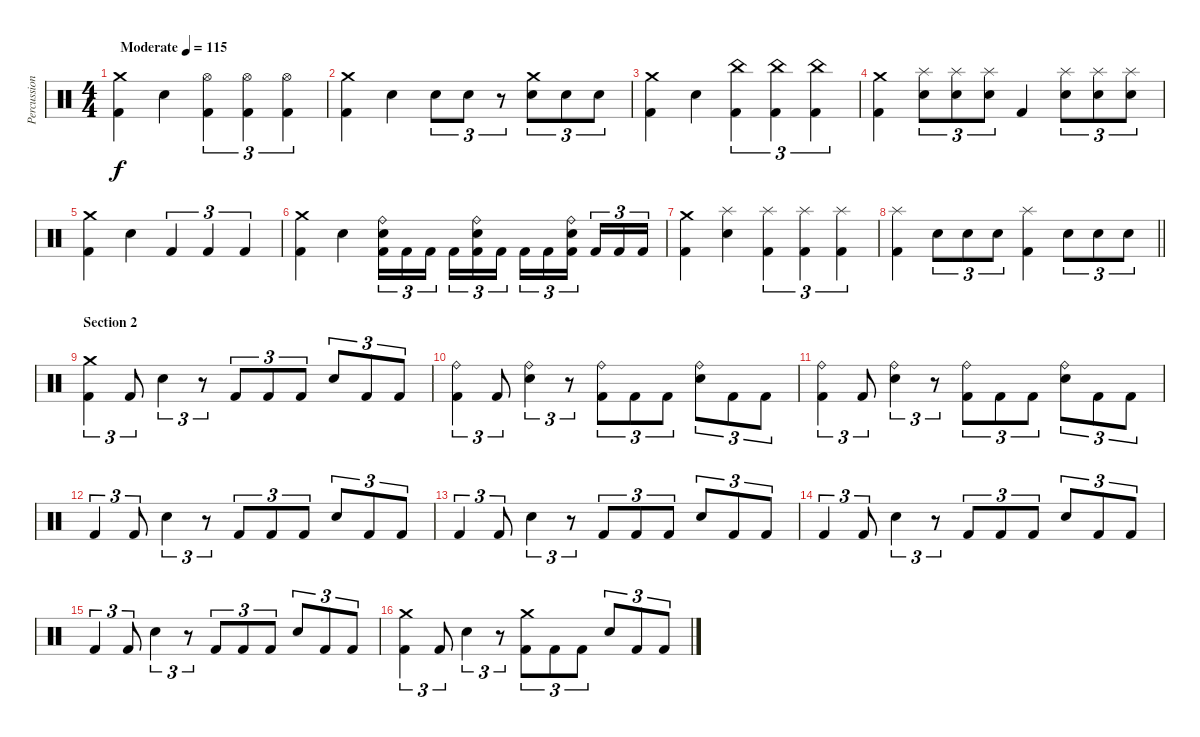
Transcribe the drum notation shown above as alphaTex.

\track ("Percussion" "Percussion") {instrument percussion}
\staff {score}
\articulation defaults
\ts (4 4)
\tempo (115 "Moderate")
\clef neutral
\ks c
("Crash medium (hit)" "Kick (hit) 2").4{dy f} "Snare (hit) 2".4 ("Hi-Hat (open)" "Kick (hit) 2").4{tu (3 2)} ("Hi-Hat (open)" "Kick (hit) 2").4{tu (3 2)} ("Hi-Hat (open)" "Kick (hit) 2").4{tu (3 2)} |
("Crash medium (hit)" "Kick (hit) 2").4 "Snare (hit) 2".4 "Snare (hit) 2".8{tu (3 2)} "Snare (hit) 2".8{tu (3 2)} r.8{tu (3 2)} ("Crash medium (hit)" "Snare (hit) 2").8{tu (3 2)} "Snare (hit) 2".8{tu (3 2)} "Snare (hit) 2".8{tu (3 2)} |
("Crash medium (hit)" "Kick (hit) 2").4 "Snare (hit) 2".4 ("China (hit)" "Kick (hit) 2").4{tu (3 2)} ("China (hit)" "Kick (hit) 2").4{tu (3 2)} ("China (hit)" "Kick (hit) 2").4{tu (3 2)} |
("Crash medium (hit)" "Kick (hit) 2").4 ("Splash (hit)" "Snare (hit) 2").8{tu (3 2)} ("Splash (hit)" "Snare (hit) 2").8{tu (3 2)} ("Splash (hit)" "Snare (hit) 2").8{tu (3 2)} "Kick (hit) 2".4 ("Splash (hit)" "Snare (hit) 2").8{tu (3 2)} ("Splash (hit)" "Snare (hit) 2").8{tu (3 2)} ("Splash (hit)" "Snare (hit) 2").8{tu (3 2)} |
("Crash medium (hit)" "Kick (hit) 2").4 "Snare (hit) 2".4 "Kick (hit) 2".4{tu (3 2)} "Kick (hit) 2".4{tu (3 2)} "Kick (hit) 2".4{tu (3 2)} |
("Crash medium (hit)" "Kick (hit) 2").4 "Snare (hit) 2".4 ("Ride (bell)" "Snare (hit) 2" "Kick (hit) 2").16{tu (3 2)} "Kick (hit) 2".16{tu (3 2)} "Kick (hit) 2".16{tu (3 2) beam splitsecondary} "Kick (hit) 2".16{tu (3 2)} ("Ride (bell)" "Snare (hit) 2" "Kick (hit) 2").16{tu (3 2)} "Kick (hit) 2".16{tu (3 2)} "Kick (hit) 2".16{tu (3 2)} "Kick (hit) 2".16{tu (3 2)} ("Ride (bell)" "Snare (hit) 2" "Kick (hit) 2").16{tu (3 2) beam splitsecondary} "Kick (hit) 2".16{tu (3 2)} "Kick (hit) 2".16{tu (3 2)} "Kick (hit) 2".16{tu (3 2)} |
("Crash medium (hit)" "Kick (hit) 2").4 ("Splash (hit)" "Snare (hit) 2").4 ("Splash (hit)" "Kick (hit) 2").4{tu (3 2)} ("Splash (hit)" "Kick (hit) 2").4{tu (3 2)} ("Splash (hit)" "Kick (hit) 2").4{tu (3 2)} |
\barLineRight lightlight
("Splash (hit)" "Kick (hit) 2").4 "Snare (hit) 2".8{tu (3 2)} "Snare (hit) 2".8{tu (3 2)} "Snare (hit) 2".8{tu (3 2)} ("Splash (hit)" "Kick (hit) 2").4 "Snare (hit) 2".8{tu (3 2)} "Snare (hit) 2".8{tu (3 2)} "Snare (hit) 2".8{tu (3 2)} |
\section ("" "Section 2")
("Crash medium (hit)" "Kick (hit) 2").4{tu (3 2)} "Kick (hit) 2".8{tu (3 2)} "Snare (hit) 2".4{tu (3 2)} r.8{tu (3 2)} "Kick (hit) 2".8{tu (3 2)} "Kick (hit) 2".8{tu (3 2)} "Kick (hit) 2".8{tu (3 2)} "Snare (hit) 2".8{tu (3 2)} "Kick (hit) 2".8{tu (3 2)} "Kick (hit) 2".8{tu (3 2)} |
("Ride (bell)" "Kick (hit) 2").4{tu (3 2)} "Kick (hit) 2".8{tu (3 2)} ("Ride (bell)" "Snare (hit) 2").4{tu (3 2)} r.8{tu (3 2)} ("Ride (bell)" "Kick (hit) 2").8{tu (3 2)} "Kick (hit) 2".8{tu (3 2)} "Kick (hit) 2".8{tu (3 2)} ("Ride (bell)" "Snare (hit) 2").8{tu (3 2)} "Kick (hit) 2".8{tu (3 2)} "Kick (hit) 2".8{tu (3 2)} |
("Ride (bell)" "Kick (hit) 2").4{tu (3 2)} "Kick (hit) 2".8{tu (3 2)} ("Ride (bell)" "Snare (hit) 2").4{tu (3 2)} r.8{tu (3 2)} ("Ride (bell)" "Kick (hit) 2").8{tu (3 2)} "Kick (hit) 2".8{tu (3 2)} "Kick (hit) 2".8{tu (3 2)} ("Ride (bell)" "Snare (hit) 2").8{tu (3 2)} "Kick (hit) 2".8{tu (3 2)} "Kick (hit) 2".8{tu (3 2)} |
"Kick (hit) 2".4{tu (3 2)} "Kick (hit) 2".8{tu (3 2)} "Snare (hit) 2".4{tu (3 2)} r.8{tu (3 2)} "Kick (hit) 2".8{tu (3 2)} "Kick (hit) 2".8{tu (3 2)} "Kick (hit) 2".8{tu (3 2)} "Snare (hit) 2".8{tu (3 2)} "Kick (hit) 2".8{tu (3 2)} "Kick (hit) 2".8{tu (3 2)} |
"Kick (hit) 2".4{tu (3 2)} "Kick (hit) 2".8{tu (3 2)} "Snare (hit) 2".4{tu (3 2)} r.8{tu (3 2)} "Kick (hit) 2".8{tu (3 2)} "Kick (hit) 2".8{tu (3 2)} "Kick (hit) 2".8{tu (3 2)} "Snare (hit) 2".8{tu (3 2)} "Kick (hit) 2".8{tu (3 2)} "Kick (hit) 2".8{tu (3 2)} |
"Kick (hit) 2".4{tu (3 2)} "Kick (hit) 2".8{tu (3 2)} "Snare (hit) 2".4{tu (3 2)} r.8{tu (3 2)} "Kick (hit) 2".8{tu (3 2)} "Kick (hit) 2".8{tu (3 2)} "Kick (hit) 2".8{tu (3 2)} "Snare (hit) 2".8{tu (3 2)} "Kick (hit) 2".8{tu (3 2)} "Kick (hit) 2".8{tu (3 2)} |
"Kick (hit) 2".4{tu (3 2)} "Kick (hit) 2".8{tu (3 2)} "Snare (hit) 2".4{tu (3 2)} r.8{tu (3 2)} "Kick (hit) 2".8{tu (3 2)} "Kick (hit) 2".8{tu (3 2)} "Kick (hit) 2".8{tu (3 2)} "Snare (hit) 2".8{tu (3 2)} "Kick (hit) 2".8{tu (3 2)} "Kick (hit) 2".8{tu (3 2)} |
("Crash medium (hit)" "Kick (hit) 2").4{tu (3 2)} "Kick (hit) 2".8{tu (3 2)} "Snare (hit) 2".4{tu (3 2)} r.8{tu (3 2)} ("Crash medium (hit)" "Kick (hit) 2").8{tu (3 2)} "Kick (hit) 2".8{tu (3 2)} "Kick (hit) 2".8{tu (3 2)} "Snare (hit) 2".8{tu (3 2)} "Kick (hit) 2".8{tu (3 2)} "Kick (hit) 2".8{tu (3 2)}
